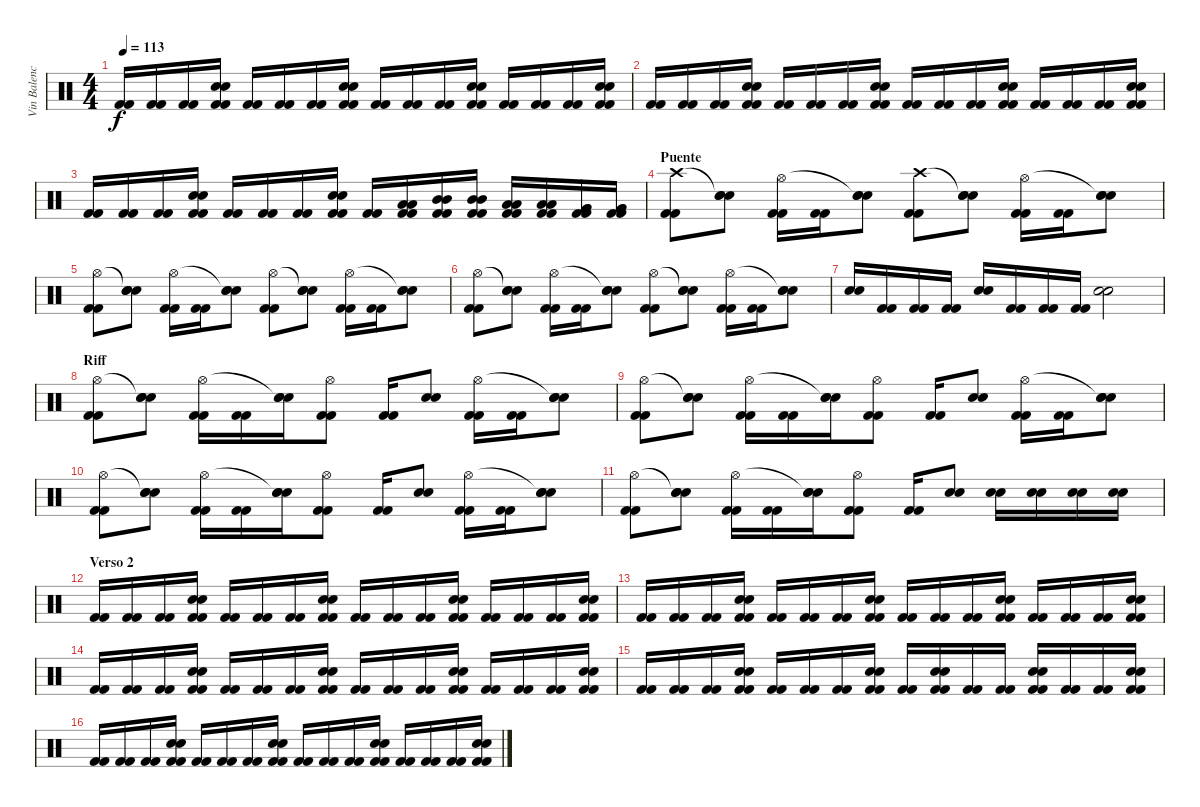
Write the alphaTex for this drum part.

\track ("Vin Balencia (bateria)" "Vin Balenc") {instrument percussion}
\staff {score}
\articulation defaults
\ts (4 4)
\tempo 113
\clef neutral
\ks c
("Kick (hit) 2" "Kick (hit) 2").16{dy f} ("Kick (hit) 2" "Kick (hit) 2").16 ("Kick (hit) 2" "Kick (hit) 2").16 ("Electric Snare (hit)" "Electric Snare (hit)" "Kick (hit) 2" "Kick (hit) 2").16 ("Kick (hit) 2" "Kick (hit) 2").16 ("Kick (hit) 2" "Kick (hit) 2").16 ("Kick (hit) 2" "Kick (hit) 2").16 ("Electric Snare (hit)" "Electric Snare (hit)" "Kick (hit) 2" "Kick (hit) 2").16 ("Kick (hit) 2" "Kick (hit) 2").16 ("Kick (hit) 2" "Kick (hit) 2").16 ("Kick (hit) 2" "Kick (hit) 2").16 ("Electric Snare (hit)" "Electric Snare (hit)" "Kick (hit) 2" "Kick (hit) 2").16 ("Kick (hit) 2" "Kick (hit) 2").16 ("Kick (hit) 2" "Kick (hit) 2").16 ("Kick (hit) 2" "Kick (hit) 2").16 ("Electric Snare (hit)" "Electric Snare (hit)" "Kick (hit) 2" "Kick (hit) 2").16 |
("Kick (hit) 2" "Kick (hit) 2").16 ("Kick (hit) 2" "Kick (hit) 2").16 ("Kick (hit) 2" "Kick (hit) 2").16 ("Electric Snare (hit)" "Electric Snare (hit)" "Kick (hit) 2" "Kick (hit) 2").16 ("Kick (hit) 2" "Kick (hit) 2").16 ("Kick (hit) 2" "Kick (hit) 2").16 ("Kick (hit) 2" "Kick (hit) 2").16 ("Electric Snare (hit)" "Electric Snare (hit)" "Kick (hit) 2" "Kick (hit) 2").16 ("Kick (hit) 2" "Kick (hit) 2").16 ("Kick (hit) 2" "Kick (hit) 2").16 ("Kick (hit) 2" "Kick (hit) 2").16 ("Electric Snare (hit)" "Electric Snare (hit)" "Kick (hit) 2" "Kick (hit) 2").16 ("Kick (hit) 2" "Kick (hit) 2").16 ("Kick (hit) 2" "Kick (hit) 2").16 ("Kick (hit) 2" "Kick (hit) 2").16 ("Electric Snare (hit)" "Electric Snare (hit)" "Kick (hit) 2" "Kick (hit) 2").16 |
("Kick (hit) 2" "Kick (hit) 2").16 ("Kick (hit) 2" "Kick (hit) 2").16 ("Kick (hit) 2" "Kick (hit) 2").16 ("Electric Snare (hit)" "Electric Snare (hit)" "Kick (hit) 2" "Kick (hit) 2").16 ("Kick (hit) 2" "Kick (hit) 2").16 ("Kick (hit) 2" "Kick (hit) 2").16 ("Kick (hit) 2" "Kick (hit) 2").16 ("Electric Snare (hit)" "Electric Snare (hit)" "Kick (hit) 2" "Kick (hit) 2").16 ("Kick (hit) 2" "Kick (hit) 2").16 ("Low Floor Tom (hit)" "Low Floor Tom (hit)" "Kick (hit) 2" "Kick (hit) 2").16 ("Mid Tom (hit)" "Mid Tom (hit)" "Kick (hit) 2" "Kick (hit) 2").16 ("Mid Tom (hit)" "Mid Tom (hit)" "Kick (hit) 2" "Kick (hit) 2").16 ("Low Tom (hit)" "Low Tom (hit)" "Kick (hit) 2" "Kick (hit) 2").16 ("Low Tom (hit)" "Low Tom (hit)" "Kick (hit) 2" "Kick (hit) 2").16 ("Very Low Tom (hit)" "Very Low Tom (hit)" "Kick (hit) 2" "Kick (hit) 2").16 ("Very Low Tom (hit)" "Very Low Tom (hit)" "Kick (hit) 2" "Kick (hit) 2").16 |
\section ("" "Puente")
("Kick (hit) 2" "Kick (hit) 2" "Crash high (hit)").8 ("Snare (hit) 2" "Snare (hit) 2" "Snare (hit)"{t}).8 ("Kick (hit) 2" "Kick (hit) 2" "Hi-Hat (open)").16 ("Kick (hit) 2" "Kick (hit) 2").16 ("Snare (hit) 2" "Snare (hit) 2" "Snare (hit)"{t}).8 ("Kick (hit) 2" "Kick (hit) 2" "Crash high (hit)").8 ("Snare (hit) 2" "Snare (hit) 2" "Snare (hit)"{t}).8 ("Kick (hit) 2" "Kick (hit) 2" "Hi-Hat (open)").16 ("Kick (hit) 2" "Kick (hit) 2").16 ("Snare (hit) 2" "Snare (hit) 2" "Snare (hit)"{t}).8 |
("Kick (hit) 2" "Kick (hit) 2" "Hi-Hat (open)").8 ("Snare (hit) 2" "Snare (hit) 2" "Snare (hit)"{t}).8 ("Kick (hit) 2" "Kick (hit) 2" "Hi-Hat (open)").16 ("Kick (hit) 2" "Kick (hit) 2").16 ("Snare (hit) 2" "Snare (hit) 2" "Snare (hit)"{t}).8 ("Kick (hit) 2" "Kick (hit) 2" "Hi-Hat (open)").8 ("Snare (hit) 2" "Snare (hit) 2" "Snare (hit)"{t}).8 ("Kick (hit) 2" "Kick (hit) 2" "Hi-Hat (open)").16 ("Kick (hit) 2" "Kick (hit) 2").16 ("Snare (hit) 2" "Snare (hit) 2" "Snare (hit)"{t}).8 |
("Kick (hit) 2" "Kick (hit) 2" "Hi-Hat (open)").8 ("Snare (hit) 2" "Snare (hit) 2" "Snare (hit)"{t}).8 ("Kick (hit) 2" "Kick (hit) 2" "Hi-Hat (open)").16 ("Kick (hit) 2" "Kick (hit) 2").16 ("Snare (hit) 2" "Snare (hit) 2" "Snare (hit)"{t}).8 ("Kick (hit) 2" "Kick (hit) 2" "Hi-Hat (open)").8 ("Snare (hit) 2" "Snare (hit) 2" "Snare (hit)"{t}).8 ("Kick (hit) 2" "Kick (hit) 2" "Hi-Hat (open)").16 ("Kick (hit) 2" "Kick (hit) 2").16 ("Snare (hit) 2" "Snare (hit) 2" "Snare (hit)"{t}).8 |
("Electric Snare (hit)" "Electric Snare (hit)").16 ("Kick (hit) 2" "Kick (hit) 2").16 ("Kick (hit) 2" "Kick (hit) 2").16 ("Kick (hit) 2" "Kick (hit) 2").16 ("Electric Snare (hit)" "Electric Snare (hit)").16 ("Kick (hit) 2" "Kick (hit) 2").16 ("Kick (hit) 2" "Kick (hit) 2").16 ("Kick (hit) 2" "Kick (hit) 2").16 ("Electric Snare (hit)" "Electric Snare (hit)").2 |
\section ("" "Riff")
("Kick (hit) 2" "Kick (hit) 2" "Hi-Hat (open)").8 ("Snare (hit) 2" "Snare (hit) 2" "Snare (hit)"{t}).8 ("Kick (hit) 2" "Kick (hit) 2" "Hi-Hat (open)").16 ("Kick (hit) 2" "Kick (hit) 2").16 ("Snare (hit) 2" "Snare (hit) 2" "Snare (hit)"{t}).16 ("Kick (hit) 2" "Kick (hit) 2" "Hi-Hat (open)").8 ("Kick (hit) 2" "Kick (hit) 2").16 ("Snare (hit) 2" "Snare (hit) 2").8 ("Kick (hit) 2" "Kick (hit) 2" "Hi-Hat (open)").16 ("Kick (hit) 2" "Kick (hit) 2").16 ("Snare (hit) 2" "Snare (hit) 2" "Snare (hit)"{t}).8 |
("Kick (hit) 2" "Kick (hit) 2" "Hi-Hat (open)").8 ("Snare (hit) 2" "Snare (hit) 2" "Snare (hit)"{t}).8 ("Kick (hit) 2" "Kick (hit) 2" "Hi-Hat (open)").16 ("Kick (hit) 2" "Kick (hit) 2").16 ("Snare (hit) 2" "Snare (hit) 2" "Snare (hit)"{t}).16 ("Kick (hit) 2" "Kick (hit) 2" "Hi-Hat (open)").8 ("Kick (hit) 2" "Kick (hit) 2").16 ("Snare (hit) 2" "Snare (hit) 2").8 ("Kick (hit) 2" "Kick (hit) 2" "Hi-Hat (open)").16 ("Kick (hit) 2" "Kick (hit) 2").16 ("Snare (hit) 2" "Snare (hit) 2" "Snare (hit)"{t}).8 |
("Kick (hit) 2" "Kick (hit) 2" "Hi-Hat (open)").8 ("Snare (hit) 2" "Snare (hit) 2" "Snare (hit)"{t}).8 ("Kick (hit) 2" "Kick (hit) 2" "Hi-Hat (open)").16 ("Kick (hit) 2" "Kick (hit) 2").16 ("Snare (hit) 2" "Snare (hit) 2" "Snare (hit)"{t}).16 ("Kick (hit) 2" "Kick (hit) 2" "Hi-Hat (open)").8 ("Kick (hit) 2" "Kick (hit) 2").16 ("Snare (hit) 2" "Snare (hit) 2").8 ("Kick (hit) 2" "Kick (hit) 2" "Hi-Hat (open)").16 ("Kick (hit) 2" "Kick (hit) 2").16 ("Snare (hit) 2" "Snare (hit) 2" "Snare (hit)"{t}).8 |
("Kick (hit) 2" "Kick (hit) 2" "Hi-Hat (open)").8 ("Snare (hit) 2" "Snare (hit) 2" "Snare (hit)"{t}).8 ("Kick (hit) 2" "Kick (hit) 2" "Hi-Hat (open)").16 ("Kick (hit) 2" "Kick (hit) 2").16 ("Snare (hit) 2" "Snare (hit) 2" "Snare (hit)"{t}).16 ("Kick (hit) 2" "Kick (hit) 2" "Hi-Hat (open)").8 ("Kick (hit) 2" "Kick (hit) 2").16 ("Snare (hit) 2" "Snare (hit) 2").8 ("Snare (hit) 2" "Snare (hit) 2").16 ("Snare (hit) 2" "Snare (hit) 2").16 ("Snare (hit) 2" "Snare (hit) 2").16 ("Snare (hit) 2" "Snare (hit) 2").16 |
\section ("" "Verso 2")
("Kick (hit) 2" "Kick (hit) 2").16 ("Kick (hit) 2" "Kick (hit) 2").16 ("Kick (hit) 2" "Kick (hit) 2").16 ("Electric Snare (hit)" "Electric Snare (hit)" "Kick (hit) 2" "Kick (hit) 2").16 ("Kick (hit) 2" "Kick (hit) 2").16 ("Kick (hit) 2" "Kick (hit) 2").16 ("Kick (hit) 2" "Kick (hit) 2").16 ("Electric Snare (hit)" "Electric Snare (hit)" "Kick (hit) 2" "Kick (hit) 2").16 ("Kick (hit) 2" "Kick (hit) 2").16 ("Kick (hit) 2" "Kick (hit) 2").16 ("Kick (hit) 2" "Kick (hit) 2").16 ("Electric Snare (hit)" "Electric Snare (hit)" "Kick (hit) 2" "Kick (hit) 2").16 ("Kick (hit) 2" "Kick (hit) 2").16 ("Kick (hit) 2" "Kick (hit) 2").16 ("Kick (hit) 2" "Kick (hit) 2").16 ("Electric Snare (hit)" "Electric Snare (hit)" "Kick (hit) 2" "Kick (hit) 2").16 |
("Kick (hit) 2" "Kick (hit) 2").16 ("Kick (hit) 2" "Kick (hit) 2").16 ("Kick (hit) 2" "Kick (hit) 2").16 ("Electric Snare (hit)" "Electric Snare (hit)" "Kick (hit) 2" "Kick (hit) 2").16 ("Kick (hit) 2" "Kick (hit) 2").16 ("Kick (hit) 2" "Kick (hit) 2").16 ("Kick (hit) 2" "Kick (hit) 2").16 ("Electric Snare (hit)" "Electric Snare (hit)" "Kick (hit) 2" "Kick (hit) 2").16 ("Kick (hit) 2" "Kick (hit) 2").16 ("Kick (hit) 2" "Kick (hit) 2").16 ("Kick (hit) 2" "Kick (hit) 2").16 ("Electric Snare (hit)" "Electric Snare (hit)" "Kick (hit) 2" "Kick (hit) 2").16 ("Kick (hit) 2" "Kick (hit) 2").16 ("Kick (hit) 2" "Kick (hit) 2").16 ("Kick (hit) 2" "Kick (hit) 2").16 ("Electric Snare (hit)" "Electric Snare (hit)" "Kick (hit) 2" "Kick (hit) 2").16 |
("Kick (hit) 2" "Kick (hit) 2").16 ("Kick (hit) 2" "Kick (hit) 2").16 ("Kick (hit) 2" "Kick (hit) 2").16 ("Electric Snare (hit)" "Electric Snare (hit)" "Kick (hit) 2" "Kick (hit) 2").16 ("Kick (hit) 2" "Kick (hit) 2").16 ("Kick (hit) 2" "Kick (hit) 2").16 ("Kick (hit) 2" "Kick (hit) 2").16 ("Electric Snare (hit)" "Electric Snare (hit)" "Kick (hit) 2" "Kick (hit) 2").16 ("Kick (hit) 2" "Kick (hit) 2").16 ("Kick (hit) 2" "Kick (hit) 2").16 ("Kick (hit) 2" "Kick (hit) 2").16 ("Electric Snare (hit)" "Electric Snare (hit)" "Kick (hit) 2" "Kick (hit) 2").16 ("Kick (hit) 2" "Kick (hit) 2").16 ("Kick (hit) 2" "Kick (hit) 2").16 ("Kick (hit) 2" "Kick (hit) 2").16 ("Electric Snare (hit)" "Electric Snare (hit)" "Kick (hit) 2" "Kick (hit) 2").16 |
("Kick (hit) 2" "Kick (hit) 2").16 ("Kick (hit) 2" "Kick (hit) 2").16 ("Kick (hit) 2" "Kick (hit) 2").16 ("Electric Snare (hit)" "Electric Snare (hit)" "Kick (hit) 2" "Kick (hit) 2").16 ("Kick (hit) 2" "Kick (hit) 2").16 ("Kick (hit) 2" "Kick (hit) 2").16 ("Kick (hit) 2" "Kick (hit) 2").16 ("Electric Snare (hit)" "Electric Snare (hit)" "Kick (hit) 2" "Kick (hit) 2").16 ("Kick (hit) 2" "Kick (hit) 2").16 ("Electric Snare (hit)" "Electric Snare (hit)" "Kick (hit) 2" "Kick (hit) 2").16 ("Kick (hit) 2" "Kick (hit) 2").16 ("Kick (hit) 2" "Kick (hit) 2").16 ("Electric Snare (hit)" "Electric Snare (hit)" "Kick (hit) 2" "Kick (hit) 2").16 ("Kick (hit) 2" "Kick (hit) 2").16 ("Kick (hit) 2" "Kick (hit) 2").16 ("Electric Snare (hit)" "Electric Snare (hit)" "Kick (hit) 2" "Kick (hit) 2").16 |
("Kick (hit) 2" "Kick (hit) 2").16 ("Kick (hit) 2" "Kick (hit) 2").16 ("Kick (hit) 2" "Kick (hit) 2").16 ("Electric Snare (hit)" "Electric Snare (hit)" "Kick (hit) 2" "Kick (hit) 2").16 ("Kick (hit) 2" "Kick (hit) 2").16 ("Kick (hit) 2" "Kick (hit) 2").16 ("Kick (hit) 2" "Kick (hit) 2").16 ("Electric Snare (hit)" "Electric Snare (hit)" "Kick (hit) 2" "Kick (hit) 2").16 ("Kick (hit) 2" "Kick (hit) 2").16 ("Kick (hit) 2" "Kick (hit) 2").16 ("Kick (hit) 2" "Kick (hit) 2").16 ("Electric Snare (hit)" "Electric Snare (hit)" "Kick (hit) 2" "Kick (hit) 2").16 ("Kick (hit) 2" "Kick (hit) 2").16 ("Kick (hit) 2" "Kick (hit) 2").16 ("Kick (hit) 2" "Kick (hit) 2").16 ("Electric Snare (hit)" "Electric Snare (hit)" "Kick (hit) 2" "Kick (hit) 2").16
